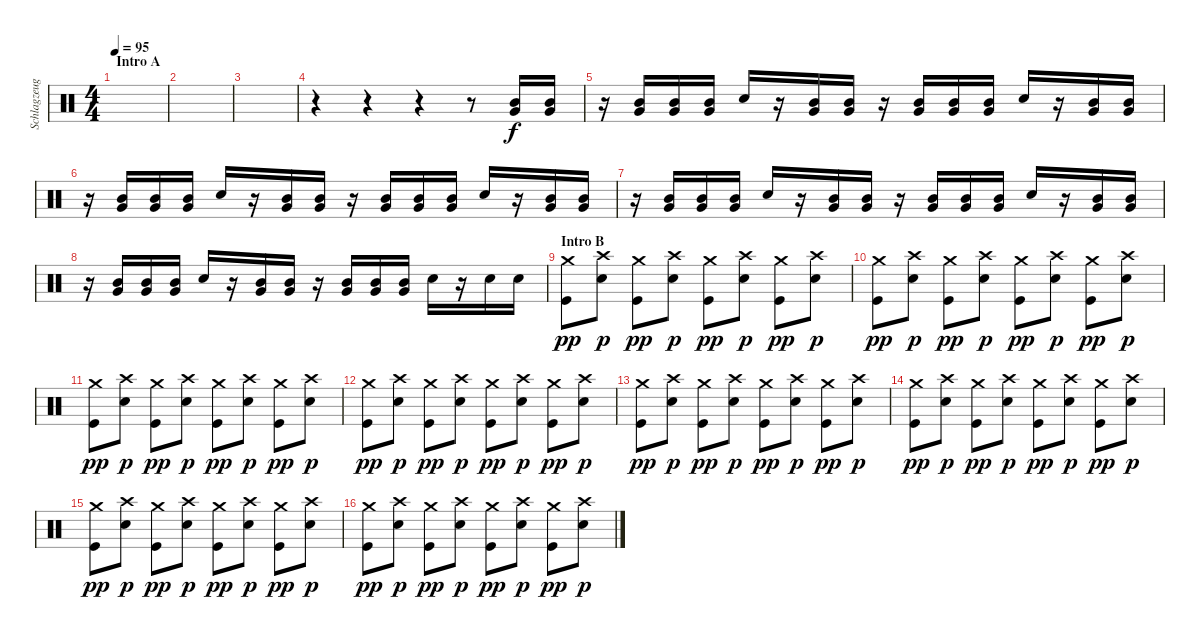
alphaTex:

\track ("Schlagzeug" "Schlagzeug") {instrument percussion}
\staff {score}
\articulation defaults
\ts (4 4)
\section ("" "Intro A")
\tempo 95
\clef neutral
\ks c
|
|
|
r.4 r.4 r.4 r.8 ("Mid Tom (hit)" "Very Low Tom (hit)").16 ("Mid Tom (hit)" "Very Low Tom (hit)").16 |
r.16 ("Mid Tom (hit)" "Very Low Tom (hit)").16 ("Mid Tom (hit)" "Very Low Tom (hit)").16 ("Mid Tom (hit)" "Very Low Tom (hit)").16 "Snare (hit) 2".16 r.16 ("Mid Tom (hit)" "Very Low Tom (hit)").16 ("Mid Tom (hit)" "Very Low Tom (hit)").16 r.16 ("Mid Tom (hit)" "Very Low Tom (hit)").16 ("Mid Tom (hit)" "Very Low Tom (hit)").16 ("Mid Tom (hit)" "Very Low Tom (hit)").16 "Snare (hit) 2".16 r.16 ("Mid Tom (hit)" "Very Low Tom (hit)").16 ("Mid Tom (hit)" "Very Low Tom (hit)").16 |
r.16 ("Mid Tom (hit)" "Very Low Tom (hit)").16 ("Mid Tom (hit)" "Very Low Tom (hit)").16 ("Mid Tom (hit)" "Very Low Tom (hit)").16 "Snare (hit) 2".16 r.16 ("Mid Tom (hit)" "Very Low Tom (hit)").16 ("Mid Tom (hit)" "Very Low Tom (hit)").16 r.16 ("Mid Tom (hit)" "Very Low Tom (hit)").16 ("Mid Tom (hit)" "Very Low Tom (hit)").16 ("Mid Tom (hit)" "Very Low Tom (hit)").16 "Snare (hit) 2".16 r.16 ("Mid Tom (hit)" "Very Low Tom (hit)").16 ("Mid Tom (hit)" "Very Low Tom (hit)").16 |
r.16 ("Mid Tom (hit)" "Very Low Tom (hit)").16 ("Mid Tom (hit)" "Very Low Tom (hit)").16 ("Mid Tom (hit)" "Very Low Tom (hit)").16 "Snare (hit) 2".16 r.16 ("Mid Tom (hit)" "Very Low Tom (hit)").16 ("Mid Tom (hit)" "Very Low Tom (hit)").16 r.16 ("Mid Tom (hit)" "Very Low Tom (hit)").16 ("Mid Tom (hit)" "Very Low Tom (hit)").16 ("Mid Tom (hit)" "Very Low Tom (hit)").16 "Snare (hit) 2".16 r.16 ("Mid Tom (hit)" "Very Low Tom (hit)").16 ("Mid Tom (hit)" "Very Low Tom (hit)").16 |
r.16 ("Mid Tom (hit)" "Very Low Tom (hit)").16 ("Mid Tom (hit)" "Very Low Tom (hit)").16 ("Mid Tom (hit)" "Very Low Tom (hit)").16 "Snare (hit) 2".16 r.16 ("Mid Tom (hit)" "Very Low Tom (hit)").16 ("Mid Tom (hit)" "Very Low Tom (hit)").16 r.16 ("Mid Tom (hit)" "Very Low Tom (hit)").16 ("Mid Tom (hit)" "Very Low Tom (hit)").16 ("Mid Tom (hit)" "Very Low Tom (hit)").16 "Snare (hit) 2".16 r.16 "Snare (hit) 2".16 "Snare (hit) 2".16 |
\section ("" "Intro B")
("Crash medium (hit)" "Kick (hit)").8{dy pp} ("Crash high (hit)" "Snare (hit) 2").8{dy p} ("Crash medium (hit)" "Kick (hit)").8{dy pp} ("Crash high (hit)" "Snare (hit) 2").8{dy p} ("Crash medium (hit)" "Kick (hit)").8{dy pp} ("Crash high (hit)" "Snare (hit) 2").8{dy p} ("Crash medium (hit)" "Kick (hit)").8{dy pp} ("Crash high (hit)" "Snare (hit) 2").8{dy p} |
("Crash medium (hit)" "Kick (hit)").8{dy pp} ("Crash high (hit)" "Snare (hit) 2").8{dy p} ("Crash medium (hit)" "Kick (hit)").8{dy pp} ("Crash high (hit)" "Snare (hit) 2").8{dy p} ("Crash medium (hit)" "Kick (hit)").8{dy pp} ("Crash high (hit)" "Snare (hit) 2").8{dy p} ("Crash medium (hit)" "Kick (hit)").8{dy pp} ("Crash high (hit)" "Snare (hit) 2").8{dy p} |
("Crash medium (hit)" "Kick (hit)").8{dy pp} ("Crash high (hit)" "Snare (hit) 2").8{dy p} ("Crash medium (hit)" "Kick (hit)").8{dy pp} ("Crash high (hit)" "Snare (hit) 2").8{dy p} ("Crash medium (hit)" "Kick (hit)").8{dy pp} ("Crash high (hit)" "Snare (hit) 2").8{dy p} ("Crash medium (hit)" "Kick (hit)").8{dy pp} ("Crash high (hit)" "Snare (hit) 2").8{dy p} |
("Crash medium (hit)" "Kick (hit)").8{dy pp} ("Crash high (hit)" "Snare (hit) 2").8{dy p} ("Crash medium (hit)" "Kick (hit)").8{dy pp} ("Crash high (hit)" "Snare (hit) 2").8{dy p} ("Crash medium (hit)" "Kick (hit)").8{dy pp} ("Crash high (hit)" "Snare (hit) 2").8{dy p} ("Crash medium (hit)" "Kick (hit)").8{dy pp} ("Crash high (hit)" "Snare (hit) 2").8{dy p} |
("Crash medium (hit)" "Kick (hit)").8{dy pp} ("Crash high (hit)" "Snare (hit) 2").8{dy p} ("Crash medium (hit)" "Kick (hit)").8{dy pp} ("Crash high (hit)" "Snare (hit) 2").8{dy p} ("Crash medium (hit)" "Kick (hit)").8{dy pp} ("Crash high (hit)" "Snare (hit) 2").8{dy p} ("Crash medium (hit)" "Kick (hit)").8{dy pp} ("Crash high (hit)" "Snare (hit) 2").8{dy p} |
("Crash medium (hit)" "Kick (hit)").8{dy pp} ("Crash high (hit)" "Snare (hit) 2").8{dy p} ("Crash medium (hit)" "Kick (hit)").8{dy pp} ("Crash high (hit)" "Snare (hit) 2").8{dy p} ("Crash medium (hit)" "Kick (hit)").8{dy pp} ("Crash high (hit)" "Snare (hit) 2").8{dy p} ("Crash medium (hit)" "Kick (hit)").8{dy pp} ("Crash high (hit)" "Snare (hit) 2").8{dy p} |
("Crash medium (hit)" "Kick (hit)").8{dy pp} ("Crash high (hit)" "Snare (hit) 2").8{dy p} ("Crash medium (hit)" "Kick (hit)").8{dy pp} ("Crash high (hit)" "Snare (hit) 2").8{dy p} ("Crash medium (hit)" "Kick (hit)").8{dy pp} ("Crash high (hit)" "Snare (hit) 2").8{dy p} ("Crash medium (hit)" "Kick (hit)").8{dy pp} ("Crash high (hit)" "Snare (hit) 2").8{dy p} |
("Crash medium (hit)" "Kick (hit)").8{dy pp} ("Crash high (hit)" "Snare (hit) 2").8{dy p} ("Crash medium (hit)" "Kick (hit)").8{dy pp} ("Crash high (hit)" "Snare (hit) 2").8{dy p} ("Crash medium (hit)" "Kick (hit)").8{dy pp} ("Crash high (hit)" "Snare (hit) 2").8{dy p} ("Crash medium (hit)" "Kick (hit)").8{dy pp} ("Crash high (hit)" "Snare (hit) 2").8{dy p}
